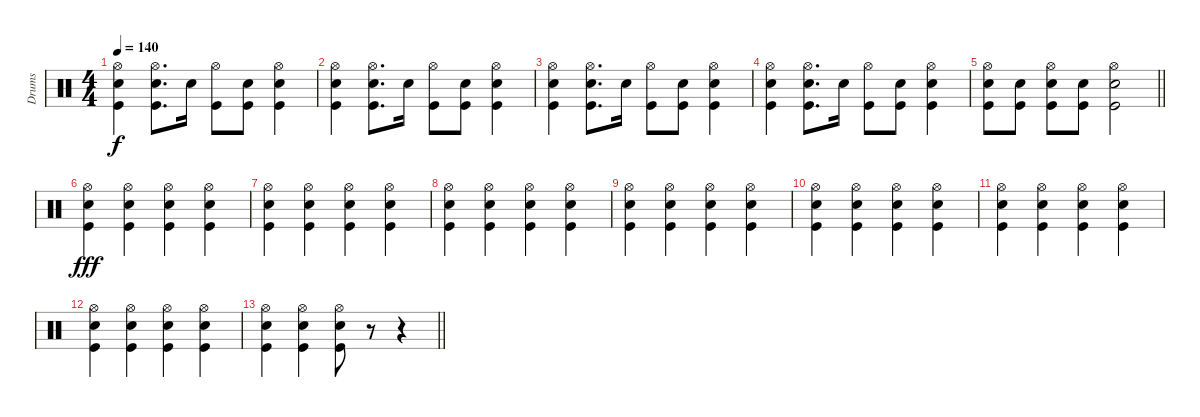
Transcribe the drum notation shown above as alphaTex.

\track ("Drums" "Drums") {instrument percussion}
\staff {score}
\articulation defaults
\ts (4 4)
\tempo 140
\clef neutral
\ks c
("Hi-Hat (open)" "Kick (hit)" "Snare (hit) 2").4{dy f} ("Hi-Hat (open)" "Kick (hit)" "Snare (hit) 2").8{d} "Snare (hit) 2".16 ("Hi-Hat (open)" "Kick (hit)").8 ("Kick (hit)" "Snare (hit) 2").8 ("Hi-Hat (open)" "Kick (hit)" "Snare (hit) 2").4 |
("Hi-Hat (open)" "Kick (hit)" "Snare (hit) 2").4 ("Hi-Hat (open)" "Kick (hit)" "Snare (hit) 2").8{d} "Snare (hit) 2".16 ("Hi-Hat (open)" "Kick (hit)").8 ("Kick (hit)" "Snare (hit) 2").8 ("Hi-Hat (open)" "Kick (hit)" "Snare (hit) 2").4 |
("Hi-Hat (open)" "Kick (hit)" "Snare (hit) 2").4 ("Hi-Hat (open)" "Kick (hit)" "Snare (hit) 2").8{d} "Snare (hit) 2".16 ("Hi-Hat (open)" "Kick (hit)").8 ("Kick (hit)" "Snare (hit) 2").8 ("Hi-Hat (open)" "Kick (hit)" "Snare (hit) 2").4 |
("Hi-Hat (open)" "Kick (hit)" "Snare (hit) 2").4 ("Hi-Hat (open)" "Kick (hit)" "Snare (hit) 2").8{d} "Snare (hit) 2".16 ("Hi-Hat (open)" "Kick (hit)").8 ("Kick (hit)" "Snare (hit) 2").8 ("Hi-Hat (open)" "Kick (hit)" "Snare (hit) 2").4 |
\barLineRight lightlight
("Hi-Hat (open)" "Kick (hit)" "Snare (hit) 2").8 ("Kick (hit)" "Snare (hit) 2").8 ("Hi-Hat (open)" "Kick (hit)" "Snare (hit) 2").8 ("Kick (hit)" "Snare (hit) 2").8 ("Hi-Hat (open)" "Kick (hit)" "Snare (hit) 2").2 |
("Hi-Hat (open)" "Kick (hit)" "Snare (hit) 2").4{dy fff} ("Hi-Hat (open)" "Kick (hit)" "Snare (hit) 2").4 ("Hi-Hat (open)" "Kick (hit)" "Snare (hit) 2").4 ("Hi-Hat (open)" "Kick (hit)" "Snare (hit) 2").4 |
("Hi-Hat (open)" "Kick (hit)" "Snare (hit) 2").4 ("Hi-Hat (open)" "Kick (hit)" "Snare (hit) 2").4 ("Hi-Hat (open)" "Kick (hit)" "Snare (hit) 2").4 ("Hi-Hat (open)" "Kick (hit)" "Snare (hit) 2").4 |
("Hi-Hat (open)" "Kick (hit)" "Snare (hit) 2").4 ("Hi-Hat (open)" "Kick (hit)" "Snare (hit) 2").4 ("Hi-Hat (open)" "Kick (hit)" "Snare (hit) 2").4 ("Hi-Hat (open)" "Kick (hit)" "Snare (hit) 2").4 |
("Hi-Hat (open)" "Kick (hit)" "Snare (hit) 2").4 ("Hi-Hat (open)" "Kick (hit)" "Snare (hit) 2").4 ("Hi-Hat (open)" "Kick (hit)" "Snare (hit) 2").4 ("Hi-Hat (open)" "Kick (hit)" "Snare (hit) 2").4 |
("Hi-Hat (open)" "Kick (hit)" "Snare (hit) 2").4 ("Hi-Hat (open)" "Kick (hit)" "Snare (hit) 2").4 ("Hi-Hat (open)" "Kick (hit)" "Snare (hit) 2").4 ("Hi-Hat (open)" "Kick (hit)" "Snare (hit) 2").4 |
("Hi-Hat (open)" "Kick (hit)" "Snare (hit) 2").4 ("Hi-Hat (open)" "Kick (hit)" "Snare (hit) 2").4 ("Hi-Hat (open)" "Kick (hit)" "Snare (hit) 2").4 ("Hi-Hat (open)" "Kick (hit)" "Snare (hit) 2").4 |
("Hi-Hat (open)" "Kick (hit)" "Snare (hit) 2").4 ("Hi-Hat (open)" "Kick (hit)" "Snare (hit) 2").4 ("Hi-Hat (open)" "Kick (hit)" "Snare (hit) 2").4 ("Hi-Hat (open)" "Kick (hit)" "Snare (hit) 2").4 |
\barLineRight lightlight
("Hi-Hat (open)" "Kick (hit)" "Snare (hit) 2").4 ("Hi-Hat (open)" "Kick (hit)" "Snare (hit) 2").4 ("Hi-Hat (open)" "Kick (hit)" "Snare (hit) 2").8 r.8 r.4
